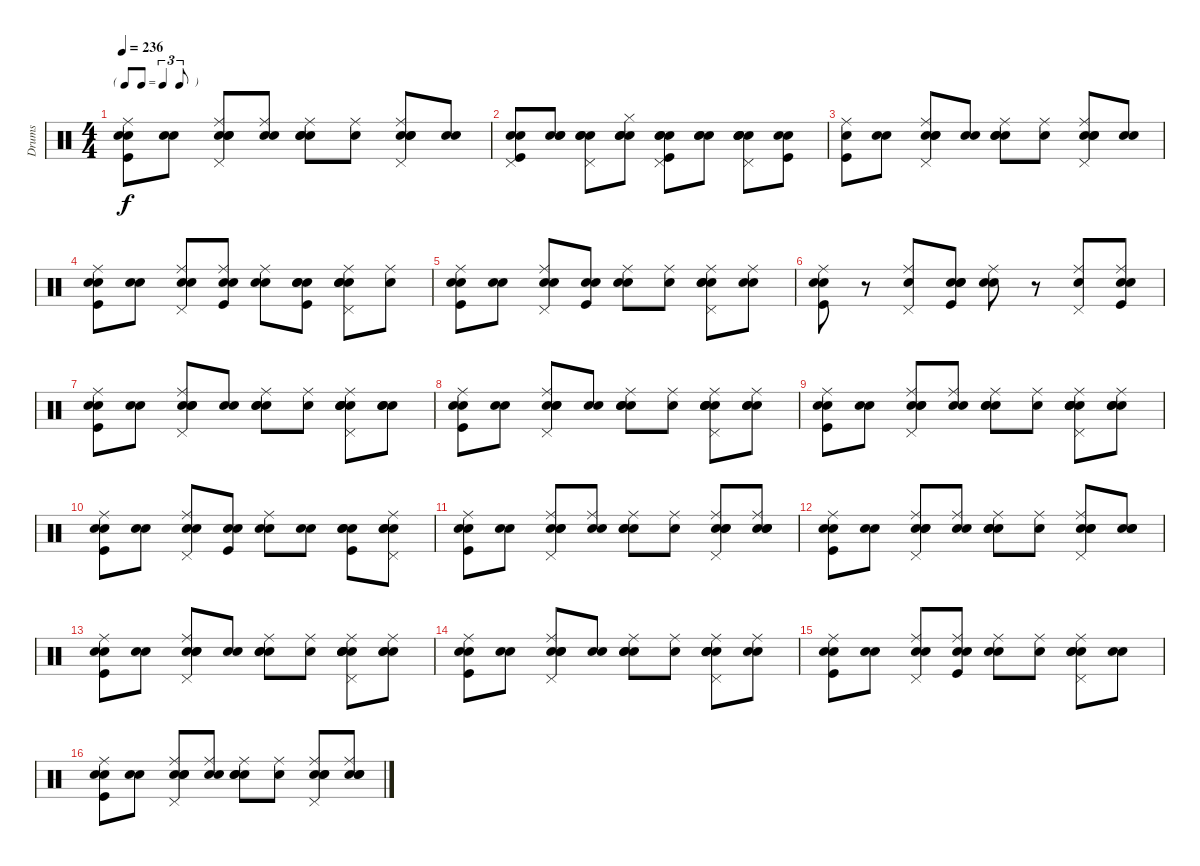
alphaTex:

\track ("Drums" "Drums") {instrument percussion}
\staff {score}
\articulation defaults
\ts (4 4)
\tf triplet8th
\tempo 236
\clef neutral
\ks c
("Snare (hit)" "Kick (hit)" "Electric Snare (hit)" "Ride (middle)").8{dy f} ("Snare (hit)" "Electric Snare (hit)").8 ("Snare (hit)" "Snare (hit) 2" "Electric Snare (hit)" "Ride (middle)" "Pedal Hi-Hat (hit)").8 ("Snare (hit)" "Snare (hit) 2" "Ride (middle)").8 ("Snare (hit)" "Snare (hit) 2" "Electric Snare (hit)" "Ride (middle)").8 ("Snare (hit)" "Ride (middle)").8 ("Snare (hit)" "Snare (hit) 2" "Electric Snare (hit)" "Ride (middle)" "Pedal Hi-Hat (hit)").8 ("Snare (hit)" "Snare (hit) 2").8 |
("Snare (hit)" "Kick (hit)" "Electric Snare (hit)" "Pedal Hi-Hat (hit)").8 ("Snare (hit)" "Electric Snare (hit)" "Hand Clap (hit)").8 ("Snare (hit)" "Snare (hit) 2" "Electric Snare (hit)" "Pedal Hi-Hat (hit)").8 ("Snare (hit)" "Snare (hit) 2" "Hi-Hat (closed)" "Hand Clap (hit)").8 ("Snare (hit)" "Kick (hit)" "Electric Snare (hit)" "Pedal Hi-Hat (hit)" "Hand Clap (hit)").8 ("Snare (hit)" "Electric Snare (hit)" "Hand Clap (hit)").8 ("Snare (hit)" "Snare (hit) 2" "Electric Snare (hit)" "Pedal Hi-Hat (hit)" "Hand Clap (hit)").8 ("Snare (hit)" "Kick (hit)" "Hand Clap (hit)").8 |
("Kick (hit)" "Electric Snare (hit)" "Ride (middle)").8 ("Snare (hit)" "Electric Snare (hit)").8 ("Snare (hit)" "Snare (hit) 2" "Electric Snare (hit)" "Ride (middle)" "Pedal Hi-Hat (hit)").8 ("Snare (hit)" "Snare (hit) 2").8 ("Snare (hit)" "Snare (hit) 2" "Electric Snare (hit)" "Ride (middle)").8 ("Snare (hit)" "Ride (middle)").8 ("Snare (hit)" "Snare (hit) 2" "Electric Snare (hit)" "Ride (middle)" "Pedal Hi-Hat (hit)").8 ("Snare (hit)" "Snare (hit) 2").8 |
("Snare (hit)" "Kick (hit)" "Electric Snare (hit)" "Ride (middle)").8 ("Snare (hit)" "Electric Snare (hit)").8 ("Snare (hit)" "Snare (hit) 2" "Ride (middle)" "Pedal Hi-Hat (hit)").8 ("Snare (hit)" "Kick (hit)" "Snare (hit) 2" "Ride (middle)").8 ("Snare (hit)" "Electric Snare (hit)" "Ride (middle)").8 ("Snare (hit)" "Kick (hit)" "Electric Snare (hit)" "Hand Clap (hit)").8 ("Snare (hit)" "Electric Snare (hit)" "Ride (middle)" "Pedal Hi-Hat (hit)" "Hand Clap (hit)").8 ("Snare (hit)" "Ride (middle)").8 |
("Snare (hit)" "Kick (hit)" "Electric Snare (hit)" "Ride (middle)").8 ("Snare (hit)" "Electric Snare (hit)").8 ("Snare (hit)" "Snare (hit) 2" "Ride (middle)" "Pedal Hi-Hat (hit)").8 ("Snare (hit)" "Kick (hit)" "Hand Clap (hit)").8 ("Snare (hit)" "Electric Snare (hit)" "Ride (middle)").8 ("Snare (hit)" "Ride (middle)").8 ("Snare (hit)" "Snare (hit) 2" "Ride (middle)" "Pedal Hi-Hat (hit)" "Hand Clap (hit)").8 ("Snare (hit)" "Snare (hit) 2" "Ride (middle)").8 |
("Snare (hit)" "Kick (hit)" "Electric Snare (hit)" "Ride (middle)").8 r.8 ("Snare (hit) 2" "Ride (middle)" "Pedal Hi-Hat (hit)").8 ("Snare (hit)" "Kick (hit)" "Snare (hit) 2" "Hand Clap (hit)").8 ("Snare (hit)" "Electric Snare (hit)" "Ride (middle)").8 r.8 ("Snare (hit) 2" "Ride (middle)" "Pedal Hi-Hat (hit)").8 ("Snare (hit)" "Kick (hit)" "Ride (middle)" "Hand Clap (hit)").8 |
("Snare (hit)" "Kick (hit)" "Electric Snare (hit)" "Ride (middle)").8 ("Snare (hit)" "Electric Snare (hit)").8 ("Snare (hit)" "Snare (hit) 2" "Electric Snare (hit)" "Ride (middle)" "Pedal Hi-Hat (hit)").8 ("Snare (hit)" "Snare (hit) 2").8 ("Snare (hit)" "Snare (hit) 2" "Electric Snare (hit)" "Ride (middle)").8 ("Snare (hit)" "Ride (middle)").8 ("Snare (hit)" "Snare (hit) 2" "Electric Snare (hit)" "Ride (middle)" "Pedal Hi-Hat (hit)" "Hand Clap (hit)").8 ("Snare (hit)" "Snare (hit) 2" "Hand Clap (hit)").8 |
("Snare (hit)" "Kick (hit)" "Electric Snare (hit)" "Ride (middle)").8 ("Snare (hit)" "Electric Snare (hit)").8 ("Snare (hit)" "Snare (hit) 2" "Electric Snare (hit)" "Ride (middle)" "Pedal Hi-Hat (hit)").8 ("Snare (hit)" "Snare (hit) 2").8 ("Snare (hit)" "Snare (hit) 2" "Electric Snare (hit)" "Ride (middle)").8 ("Snare (hit)" "Ride (middle)").8 ("Snare (hit)" "Snare (hit) 2" "Electric Snare (hit)" "Ride (middle)" "Pedal Hi-Hat (hit)" "Hand Clap (hit)").8 ("Snare (hit)" "Snare (hit) 2" "Ride (middle)" "Hand Clap (hit)").8 |
("Snare (hit)" "Kick (hit)" "Electric Snare (hit)" "Ride (middle)").8 ("Snare (hit)" "Electric Snare (hit)").8 ("Snare (hit)" "Snare (hit) 2" "Electric Snare (hit)" "Ride (middle)" "Pedal Hi-Hat (hit)").8 ("Snare (hit)" "Snare (hit) 2" "Ride (middle)").8 ("Snare (hit)" "Snare (hit) 2" "Electric Snare (hit)" "Ride (middle)").8 ("Snare (hit)" "Ride (middle)").8 ("Snare (hit)" "Snare (hit) 2" "Electric Snare (hit)" "Ride (middle)" "Pedal Hi-Hat (hit)" "Hand Clap (hit)").8 ("Snare (hit)" "Snare (hit) 2" "Ride (middle)" "Hand Clap (hit)").8 |
("Snare (hit)" "Kick (hit)" "Electric Snare (hit)" "Ride (middle)").8 ("Snare (hit)" "Electric Snare (hit)").8 ("Snare (hit)" "Snare (hit) 2" "Ride (middle)" "Pedal Hi-Hat (hit)").8 ("Snare (hit)" "Kick (hit)" "Hand Clap (hit)").8 ("Snare (hit)" "Electric Snare (hit)" "Ride (middle)").8 ("Snare (hit)" "Snare (hit) 2").8 ("Snare (hit)" "Kick (hit)" "Electric Snare (hit)" "Hand Clap (hit)").8 ("Snare (hit)" "Electric Snare (hit)" "Ride (middle)" "Pedal Hi-Hat (hit)" "Hand Clap (hit)").8 |
("Snare (hit)" "Kick (hit)" "Electric Snare (hit)" "Ride (middle)").8 ("Snare (hit)" "Electric Snare (hit)").8 ("Snare (hit)" "Snare (hit) 2" "Electric Snare (hit)" "Ride (middle)" "Pedal Hi-Hat (hit)").8 ("Snare (hit)" "Snare (hit) 2" "Ride (middle)").8 ("Snare (hit)" "Snare (hit) 2" "Electric Snare (hit)" "Ride (middle)").8 ("Snare (hit)" "Ride (middle)").8 ("Snare (hit)" "Snare (hit) 2" "Electric Snare (hit)" "Ride (middle)" "Pedal Hi-Hat (hit)").8 ("Snare (hit)" "Snare (hit) 2" "Ride (middle)" "Hand Clap (hit)").8 |
("Snare (hit)" "Kick (hit)" "Electric Snare (hit)" "Ride (middle)").8 ("Snare (hit)" "Electric Snare (hit)").8 ("Snare (hit)" "Snare (hit) 2" "Electric Snare (hit)" "Ride (middle)" "Pedal Hi-Hat (hit)").8 ("Snare (hit)" "Snare (hit) 2" "Ride (middle)").8 ("Snare (hit)" "Snare (hit) 2" "Electric Snare (hit)" "Ride (middle)").8 ("Snare (hit)" "Ride (middle)").8 ("Snare (hit)" "Snare (hit) 2" "Electric Snare (hit)" "Ride (middle)" "Pedal Hi-Hat (hit)").8 ("Snare (hit)" "Snare (hit) 2" "Hand Clap (hit)").8 |
("Snare (hit)" "Kick (hit)" "Electric Snare (hit)" "Ride (middle)").8 ("Snare (hit)" "Electric Snare (hit)").8 ("Snare (hit)" "Snare (hit) 2" "Electric Snare (hit)" "Ride (middle)" "Pedal Hi-Hat (hit)").8 ("Snare (hit)" "Snare (hit) 2").8 ("Snare (hit)" "Snare (hit) 2" "Electric Snare (hit)" "Ride (middle)").8 ("Snare (hit)" "Ride (middle)").8 ("Snare (hit)" "Snare (hit) 2" "Electric Snare (hit)" "Ride (middle)" "Pedal Hi-Hat (hit)" "Hand Clap (hit)").8 ("Snare (hit)" "Snare (hit) 2" "Ride (middle)" "Hand Clap (hit)").8 |
("Snare (hit)" "Kick (hit)" "Electric Snare (hit)" "Ride (middle)").8 ("Snare (hit)" "Electric Snare (hit)").8 ("Snare (hit)" "Snare (hit) 2" "Electric Snare (hit)" "Ride (middle)" "Pedal Hi-Hat (hit)").8 ("Snare (hit)" "Snare (hit) 2").8 ("Snare (hit)" "Snare (hit) 2" "Electric Snare (hit)" "Ride (middle)").8 ("Snare (hit)" "Ride (middle)").8 ("Snare (hit)" "Snare (hit) 2" "Electric Snare (hit)" "Ride (middle)" "Pedal Hi-Hat (hit)" "Hand Clap (hit)").8 ("Snare (hit)" "Snare (hit) 2" "Ride (middle)").8 |
("Snare (hit)" "Kick (hit)" "Electric Snare (hit)" "Ride (middle)").8 ("Snare (hit)" "Electric Snare (hit)").8 ("Snare (hit)" "Snare (hit) 2" "Ride (middle)" "Pedal Hi-Hat (hit)").8 ("Snare (hit)" "Kick (hit)" "Snare (hit) 2" "Ride (middle)").8 ("Snare (hit)" "Electric Snare (hit)" "Ride (middle)").8 ("Snare (hit)" "Ride (middle)").8 ("Snare (hit)" "Snare (hit) 2" "Ride (middle)" "Pedal Hi-Hat (hit)" "Hand Clap (hit)").8 ("Snare (hit)" "Hand Clap (hit)").8 |
("Snare (hit)" "Kick (hit)" "Electric Snare (hit)" "Ride (middle)").8 ("Snare (hit)" "Electric Snare (hit)").8 ("Snare (hit)" "Snare (hit) 2" "Electric Snare (hit)" "Ride (middle)" "Pedal Hi-Hat (hit)").8 ("Snare (hit)" "Snare (hit) 2" "Ride (middle)").8 ("Snare (hit)" "Snare (hit) 2" "Electric Snare (hit)" "Ride (middle)").8 ("Snare (hit)" "Ride (middle)").8 ("Snare (hit)" "Snare (hit) 2" "Electric Snare (hit)" "Ride (middle)" "Pedal Hi-Hat (hit)").8 ("Snare (hit)" "Snare (hit) 2" "Ride (middle)" "Hand Clap (hit)").8
